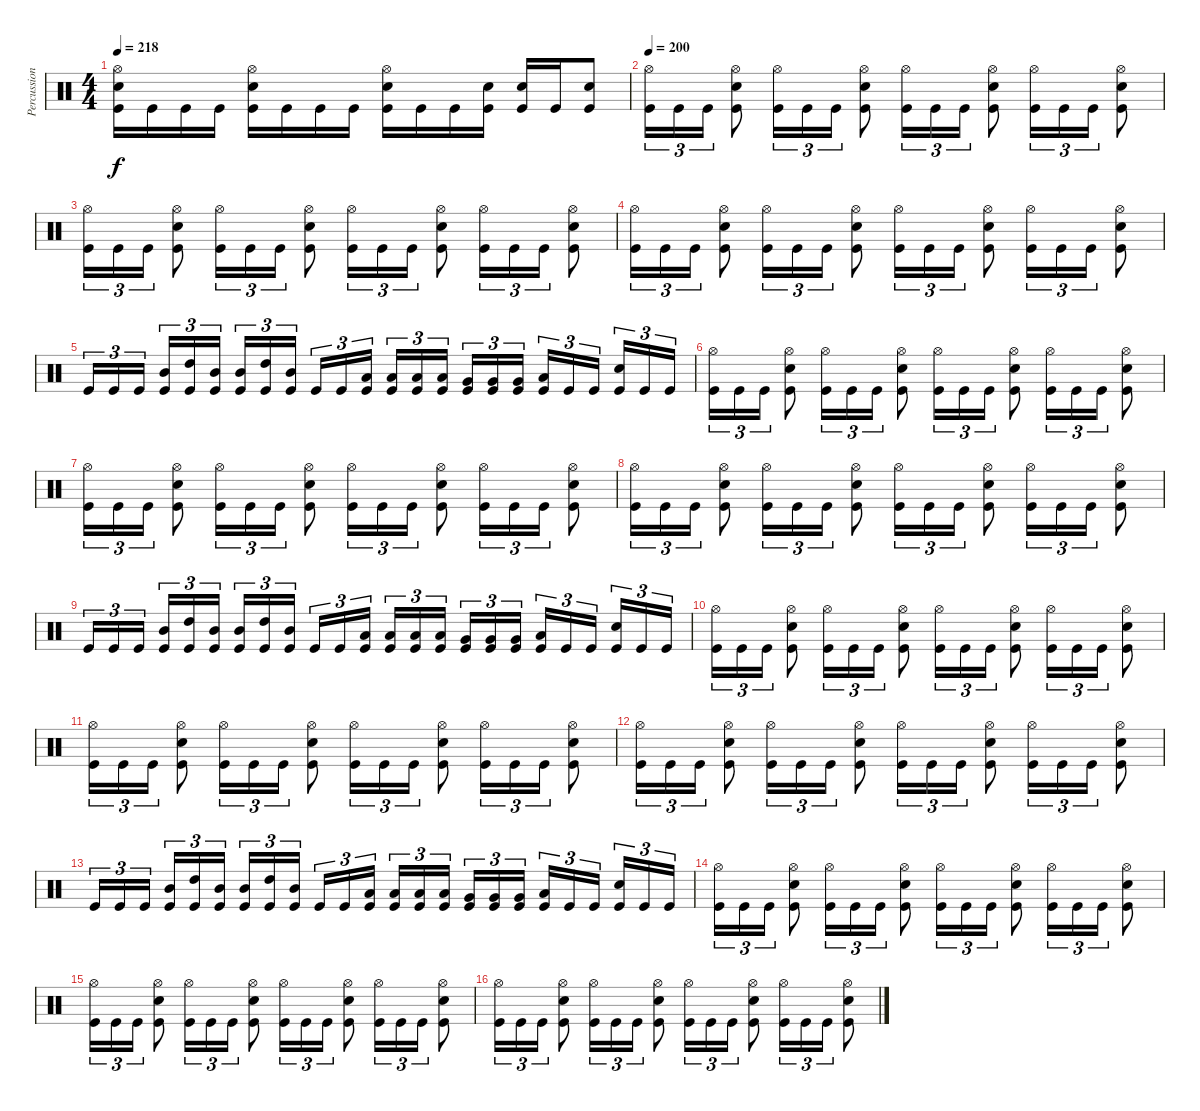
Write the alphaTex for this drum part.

\track ("Percussioni" "Percussion") {instrument percussion}
\staff {score}
\articulation defaults
\ts (4 4)
\tempo 218
\clef neutral
\ks c
("Hi-Hat (open)" "Electric Snare (hit)" "Kick (hit)").16{dy f} "Kick (hit)".16 "Kick (hit)".16 "Kick (hit)".16 ("Hi-Hat (open)" "Electric Snare (hit)" "Kick (hit)").16 "Kick (hit)".16 "Kick (hit)".16 "Kick (hit)".16 ("Hi-Hat (open)" "Electric Snare (hit)" "Kick (hit)").16 "Kick (hit)".16 "Kick (hit)".16 ("Electric Snare (hit)" "Kick (hit)").16 ("Electric Snare (hit)" "Kick (hit)").16 "Kick (hit)".16 ("Electric Snare (hit)" "Kick (hit)").8 |
\tempo 200
("Hi-Hat (open)" "Kick (hit)").16{tu (3 2)} "Kick (hit)".16{tu (3 2)} "Kick (hit)".16{tu (3 2)} ("Hi-Hat (open)" "Electric Snare (hit)" "Kick (hit)").8 ("Hi-Hat (open)" "Kick (hit)").16{tu (3 2)} "Kick (hit)".16{tu (3 2)} "Kick (hit)".16{tu (3 2)} ("Hi-Hat (open)" "Electric Snare (hit)" "Kick (hit)").8 ("Hi-Hat (open)" "Kick (hit)").16{tu (3 2)} "Kick (hit)".16{tu (3 2)} "Kick (hit)".16{tu (3 2)} ("Hi-Hat (open)" "Electric Snare (hit)" "Kick (hit)").8 ("Hi-Hat (open)" "Kick (hit)").16{tu (3 2)} "Kick (hit)".16{tu (3 2)} "Kick (hit)".16{tu (3 2)} ("Hi-Hat (open)" "Electric Snare (hit)" "Kick (hit)").8 |
("Hi-Hat (open)" "Kick (hit)").16{tu (3 2)} "Kick (hit)".16{tu (3 2)} "Kick (hit)".16{tu (3 2)} ("Hi-Hat (open)" "Electric Snare (hit)" "Kick (hit)").8 ("Hi-Hat (open)" "Kick (hit)").16{tu (3 2)} "Kick (hit)".16{tu (3 2)} "Kick (hit)".16{tu (3 2)} ("Hi-Hat (open)" "Electric Snare (hit)" "Kick (hit)").8 ("Hi-Hat (open)" "Kick (hit)").16{tu (3 2)} "Kick (hit)".16{tu (3 2)} "Kick (hit)".16{tu (3 2)} ("Hi-Hat (open)" "Electric Snare (hit)" "Kick (hit)").8 ("Hi-Hat (open)" "Kick (hit)").16{tu (3 2)} "Kick (hit)".16{tu (3 2)} "Kick (hit)".16{tu (3 2)} ("Hi-Hat (open)" "Electric Snare (hit)" "Kick (hit)").8 |
("Hi-Hat (open)" "Kick (hit)").16{tu (3 2)} "Kick (hit)".16{tu (3 2)} "Kick (hit)".16{tu (3 2)} ("Hi-Hat (open)" "Electric Snare (hit)" "Kick (hit)").8 ("Hi-Hat (open)" "Kick (hit)").16{tu (3 2)} "Kick (hit)".16{tu (3 2)} "Kick (hit)".16{tu (3 2)} ("Hi-Hat (open)" "Electric Snare (hit)" "Kick (hit)").8 ("Hi-Hat (open)" "Kick (hit)").16{tu (3 2)} "Kick (hit)".16{tu (3 2)} "Kick (hit)".16{tu (3 2)} ("Hi-Hat (open)" "Electric Snare (hit)" "Kick (hit)").8 ("Hi-Hat (open)" "Kick (hit)").16{tu (3 2)} "Kick (hit)".16{tu (3 2)} "Kick (hit)".16{tu (3 2)} ("Hi-Hat (open)" "Electric Snare (hit)" "Kick (hit)").8 |
"Kick (hit)".16{tu (3 2)} "Kick (hit)".16{tu (3 2)} "Kick (hit)".16{tu (3 2)} ("Mid Tom (hit)" "Kick (hit)").16{tu (3 2)} ("High Tom (hit)" "Kick (hit)").16{tu (3 2)} ("Mid Tom (hit)" "Kick (hit)").16{tu (3 2)} ("Mid Tom (hit)" "Kick (hit)").16{tu (3 2)} ("High Tom (hit)" "Kick (hit)").16{tu (3 2)} ("Mid Tom (hit)" "Kick (hit)").16{tu (3 2)} "Kick (hit)".16{tu (3 2)} "Kick (hit)".16{tu (3 2)} ("Low Tom (hit)" "Kick (hit)").16{tu (3 2)} ("Low Tom (hit)" "Kick (hit)").16{tu (3 2)} ("Low Tom (hit)" "Kick (hit)").16{tu (3 2)} ("Low Tom (hit)" "Kick (hit)").16{tu (3 2)} ("Very Low Tom (hit)" "Kick (hit)").16{tu (3 2)} ("Very Low Tom (hit)" "Kick (hit)").16{tu (3 2)} ("Very Low Tom (hit)" "Kick (hit)").16{tu (3 2)} ("Low Floor Tom (hit)" "Kick (hit)").16{tu (3 2)} "Kick (hit)".16{tu (3 2)} "Kick (hit)".16{tu (3 2)} ("Electric Snare (hit)" "Kick (hit)").16{tu (3 2)} "Kick (hit)".16{tu (3 2)} "Kick (hit)".16{tu (3 2)} |
("Hi-Hat (open)" "Kick (hit)").16{tu (3 2)} "Kick (hit)".16{tu (3 2)} "Kick (hit)".16{tu (3 2)} ("Hi-Hat (open)" "Electric Snare (hit)" "Kick (hit)").8 ("Hi-Hat (open)" "Kick (hit)").16{tu (3 2)} "Kick (hit)".16{tu (3 2)} "Kick (hit)".16{tu (3 2)} ("Hi-Hat (open)" "Electric Snare (hit)" "Kick (hit)").8 ("Hi-Hat (open)" "Kick (hit)").16{tu (3 2)} "Kick (hit)".16{tu (3 2)} "Kick (hit)".16{tu (3 2)} ("Hi-Hat (open)" "Electric Snare (hit)" "Kick (hit)").8 ("Hi-Hat (open)" "Kick (hit)").16{tu (3 2)} "Kick (hit)".16{tu (3 2)} "Kick (hit)".16{tu (3 2)} ("Hi-Hat (open)" "Electric Snare (hit)" "Kick (hit)").8 |
("Hi-Hat (open)" "Kick (hit)").16{tu (3 2)} "Kick (hit)".16{tu (3 2)} "Kick (hit)".16{tu (3 2)} ("Hi-Hat (open)" "Electric Snare (hit)" "Kick (hit)").8 ("Hi-Hat (open)" "Kick (hit)").16{tu (3 2)} "Kick (hit)".16{tu (3 2)} "Kick (hit)".16{tu (3 2)} ("Hi-Hat (open)" "Electric Snare (hit)" "Kick (hit)").8 ("Hi-Hat (open)" "Kick (hit)").16{tu (3 2)} "Kick (hit)".16{tu (3 2)} "Kick (hit)".16{tu (3 2)} ("Hi-Hat (open)" "Electric Snare (hit)" "Kick (hit)").8 ("Hi-Hat (open)" "Kick (hit)").16{tu (3 2)} "Kick (hit)".16{tu (3 2)} "Kick (hit)".16{tu (3 2)} ("Hi-Hat (open)" "Electric Snare (hit)" "Kick (hit)").8 |
("Hi-Hat (open)" "Kick (hit)").16{tu (3 2)} "Kick (hit)".16{tu (3 2)} "Kick (hit)".16{tu (3 2)} ("Hi-Hat (open)" "Electric Snare (hit)" "Kick (hit)").8 ("Hi-Hat (open)" "Kick (hit)").16{tu (3 2)} "Kick (hit)".16{tu (3 2)} "Kick (hit)".16{tu (3 2)} ("Hi-Hat (open)" "Electric Snare (hit)" "Kick (hit)").8 ("Hi-Hat (open)" "Kick (hit)").16{tu (3 2)} "Kick (hit)".16{tu (3 2)} "Kick (hit)".16{tu (3 2)} ("Hi-Hat (open)" "Electric Snare (hit)" "Kick (hit)").8 ("Hi-Hat (open)" "Kick (hit)").16{tu (3 2)} "Kick (hit)".16{tu (3 2)} "Kick (hit)".16{tu (3 2)} ("Hi-Hat (open)" "Electric Snare (hit)" "Kick (hit)").8 |
"Kick (hit)".16{tu (3 2)} "Kick (hit)".16{tu (3 2)} "Kick (hit)".16{tu (3 2)} ("Mid Tom (hit)" "Kick (hit)").16{tu (3 2)} ("High Tom (hit)" "Kick (hit)").16{tu (3 2)} ("Mid Tom (hit)" "Kick (hit)").16{tu (3 2)} ("Mid Tom (hit)" "Kick (hit)").16{tu (3 2)} ("High Tom (hit)" "Kick (hit)").16{tu (3 2)} ("Mid Tom (hit)" "Kick (hit)").16{tu (3 2)} "Kick (hit)".16{tu (3 2)} "Kick (hit)".16{tu (3 2)} ("Low Tom (hit)" "Kick (hit)").16{tu (3 2)} ("Low Tom (hit)" "Kick (hit)").16{tu (3 2)} ("Low Tom (hit)" "Kick (hit)").16{tu (3 2)} ("Low Tom (hit)" "Kick (hit)").16{tu (3 2)} ("Very Low Tom (hit)" "Kick (hit)").16{tu (3 2)} ("Very Low Tom (hit)" "Kick (hit)").16{tu (3 2)} ("Very Low Tom (hit)" "Kick (hit)").16{tu (3 2)} ("Low Floor Tom (hit)" "Kick (hit)").16{tu (3 2)} "Kick (hit)".16{tu (3 2)} "Kick (hit)".16{tu (3 2)} ("Electric Snare (hit)" "Kick (hit)").16{tu (3 2)} "Kick (hit)".16{tu (3 2)} "Kick (hit)".16{tu (3 2)} |
("Hi-Hat (open)" "Kick (hit)").16{tu (3 2)} "Kick (hit)".16{tu (3 2)} "Kick (hit)".16{tu (3 2)} ("Hi-Hat (open)" "Electric Snare (hit)" "Kick (hit)").8 ("Hi-Hat (open)" "Kick (hit)").16{tu (3 2)} "Kick (hit)".16{tu (3 2)} "Kick (hit)".16{tu (3 2)} ("Hi-Hat (open)" "Electric Snare (hit)" "Kick (hit)").8 ("Hi-Hat (open)" "Kick (hit)").16{tu (3 2)} "Kick (hit)".16{tu (3 2)} "Kick (hit)".16{tu (3 2)} ("Hi-Hat (open)" "Electric Snare (hit)" "Kick (hit)").8 ("Hi-Hat (open)" "Kick (hit)").16{tu (3 2)} "Kick (hit)".16{tu (3 2)} "Kick (hit)".16{tu (3 2)} ("Hi-Hat (open)" "Electric Snare (hit)" "Kick (hit)").8 |
("Hi-Hat (open)" "Kick (hit)").16{tu (3 2)} "Kick (hit)".16{tu (3 2)} "Kick (hit)".16{tu (3 2)} ("Hi-Hat (open)" "Electric Snare (hit)" "Kick (hit)").8 ("Hi-Hat (open)" "Kick (hit)").16{tu (3 2)} "Kick (hit)".16{tu (3 2)} "Kick (hit)".16{tu (3 2)} ("Hi-Hat (open)" "Electric Snare (hit)" "Kick (hit)").8 ("Hi-Hat (open)" "Kick (hit)").16{tu (3 2)} "Kick (hit)".16{tu (3 2)} "Kick (hit)".16{tu (3 2)} ("Hi-Hat (open)" "Electric Snare (hit)" "Kick (hit)").8 ("Hi-Hat (open)" "Kick (hit)").16{tu (3 2)} "Kick (hit)".16{tu (3 2)} "Kick (hit)".16{tu (3 2)} ("Hi-Hat (open)" "Electric Snare (hit)" "Kick (hit)").8 |
("Hi-Hat (open)" "Kick (hit)").16{tu (3 2)} "Kick (hit)".16{tu (3 2)} "Kick (hit)".16{tu (3 2)} ("Hi-Hat (open)" "Electric Snare (hit)" "Kick (hit)").8 ("Hi-Hat (open)" "Kick (hit)").16{tu (3 2)} "Kick (hit)".16{tu (3 2)} "Kick (hit)".16{tu (3 2)} ("Hi-Hat (open)" "Electric Snare (hit)" "Kick (hit)").8 ("Hi-Hat (open)" "Kick (hit)").16{tu (3 2)} "Kick (hit)".16{tu (3 2)} "Kick (hit)".16{tu (3 2)} ("Hi-Hat (open)" "Electric Snare (hit)" "Kick (hit)").8 ("Hi-Hat (open)" "Kick (hit)").16{tu (3 2)} "Kick (hit)".16{tu (3 2)} "Kick (hit)".16{tu (3 2)} ("Hi-Hat (open)" "Electric Snare (hit)" "Kick (hit)").8 |
"Kick (hit)".16{tu (3 2)} "Kick (hit)".16{tu (3 2)} "Kick (hit)".16{tu (3 2)} ("Mid Tom (hit)" "Kick (hit)").16{tu (3 2)} ("High Tom (hit)" "Kick (hit)").16{tu (3 2)} ("Mid Tom (hit)" "Kick (hit)").16{tu (3 2)} ("Mid Tom (hit)" "Kick (hit)").16{tu (3 2)} ("High Tom (hit)" "Kick (hit)").16{tu (3 2)} ("Mid Tom (hit)" "Kick (hit)").16{tu (3 2)} "Kick (hit)".16{tu (3 2)} "Kick (hit)".16{tu (3 2)} ("Low Tom (hit)" "Kick (hit)").16{tu (3 2)} ("Low Tom (hit)" "Kick (hit)").16{tu (3 2)} ("Low Tom (hit)" "Kick (hit)").16{tu (3 2)} ("Low Tom (hit)" "Kick (hit)").16{tu (3 2)} ("Very Low Tom (hit)" "Kick (hit)").16{tu (3 2)} ("Very Low Tom (hit)" "Kick (hit)").16{tu (3 2)} ("Very Low Tom (hit)" "Kick (hit)").16{tu (3 2)} ("Low Floor Tom (hit)" "Kick (hit)").16{tu (3 2)} "Kick (hit)".16{tu (3 2)} "Kick (hit)".16{tu (3 2)} ("Electric Snare (hit)" "Kick (hit)").16{tu (3 2)} "Kick (hit)".16{tu (3 2)} "Kick (hit)".16{tu (3 2)} |
("Hi-Hat (open)" "Kick (hit)").16{tu (3 2)} "Kick (hit)".16{tu (3 2)} "Kick (hit)".16{tu (3 2)} ("Hi-Hat (open)" "Electric Snare (hit)" "Kick (hit)").8 ("Hi-Hat (open)" "Kick (hit)").16{tu (3 2)} "Kick (hit)".16{tu (3 2)} "Kick (hit)".16{tu (3 2)} ("Hi-Hat (open)" "Electric Snare (hit)" "Kick (hit)").8 ("Hi-Hat (open)" "Kick (hit)").16{tu (3 2)} "Kick (hit)".16{tu (3 2)} "Kick (hit)".16{tu (3 2)} ("Hi-Hat (open)" "Electric Snare (hit)" "Kick (hit)").8 ("Hi-Hat (open)" "Kick (hit)").16{tu (3 2)} "Kick (hit)".16{tu (3 2)} "Kick (hit)".16{tu (3 2)} ("Hi-Hat (open)" "Electric Snare (hit)" "Kick (hit)").8 |
("Hi-Hat (open)" "Kick (hit)").16{tu (3 2)} "Kick (hit)".16{tu (3 2)} "Kick (hit)".16{tu (3 2)} ("Hi-Hat (open)" "Electric Snare (hit)" "Kick (hit)").8 ("Hi-Hat (open)" "Kick (hit)").16{tu (3 2)} "Kick (hit)".16{tu (3 2)} "Kick (hit)".16{tu (3 2)} ("Hi-Hat (open)" "Electric Snare (hit)" "Kick (hit)").8 ("Hi-Hat (open)" "Kick (hit)").16{tu (3 2)} "Kick (hit)".16{tu (3 2)} "Kick (hit)".16{tu (3 2)} ("Hi-Hat (open)" "Electric Snare (hit)" "Kick (hit)").8 ("Hi-Hat (open)" "Kick (hit)").16{tu (3 2)} "Kick (hit)".16{tu (3 2)} "Kick (hit)".16{tu (3 2)} ("Hi-Hat (open)" "Electric Snare (hit)" "Kick (hit)").8 |
("Hi-Hat (open)" "Kick (hit)").16{tu (3 2)} "Kick (hit)".16{tu (3 2)} "Kick (hit)".16{tu (3 2)} ("Hi-Hat (open)" "Electric Snare (hit)" "Kick (hit)").8 ("Hi-Hat (open)" "Kick (hit)").16{tu (3 2)} "Kick (hit)".16{tu (3 2)} "Kick (hit)".16{tu (3 2)} ("Hi-Hat (open)" "Electric Snare (hit)" "Kick (hit)").8 ("Hi-Hat (open)" "Kick (hit)").16{tu (3 2)} "Kick (hit)".16{tu (3 2)} "Kick (hit)".16{tu (3 2)} ("Hi-Hat (open)" "Electric Snare (hit)" "Kick (hit)").8 ("Hi-Hat (open)" "Kick (hit)").16{tu (3 2)} "Kick (hit)".16{tu (3 2)} "Kick (hit)".16{tu (3 2)} ("Hi-Hat (open)" "Electric Snare (hit)" "Kick (hit)").8
